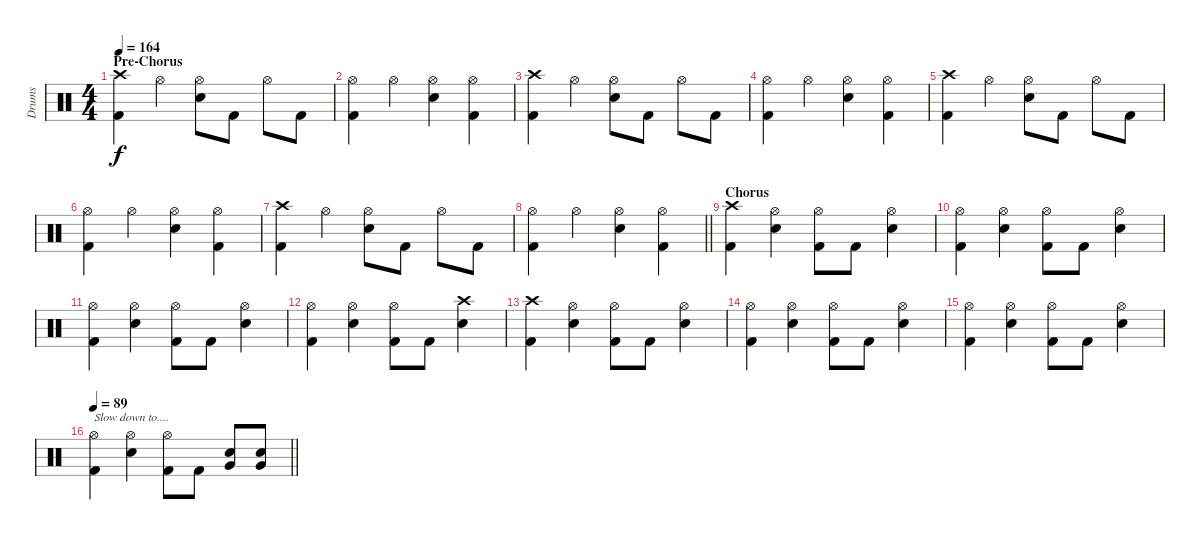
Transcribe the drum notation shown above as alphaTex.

\track ("Drums" "Drums") {instrument percussion}
\staff {score}
\articulation defaults
\ts (4 4)
\section ("" "Pre-Chorus")
\tempo 164
\clef neutral
\ks c
("Crash high (hit)" "Kick (hit) 2").4{dy f} "Hi-Hat (open)".4 ("Hi-Hat (open)" "Snare (hit) 2").8 "Kick (hit) 2".8 "Hi-Hat (open)".8 "Kick (hit) 2".8 |
("Hi-Hat (open)" "Kick (hit) 2").4 "Hi-Hat (open)".4 ("Hi-Hat (open)" "Snare (hit) 2").4 ("Hi-Hat (open)" "Kick (hit) 2").4 |
("Crash high (hit)" "Kick (hit) 2").4 "Hi-Hat (open)".4 ("Hi-Hat (open)" "Snare (hit) 2").8 "Kick (hit) 2".8 "Hi-Hat (open)".8 "Kick (hit) 2".8 |
("Hi-Hat (open)" "Kick (hit) 2").4 "Hi-Hat (open)".4 ("Hi-Hat (open)" "Snare (hit) 2").4 ("Hi-Hat (open)" "Kick (hit) 2").4 |
("Crash high (hit)" "Kick (hit) 2").4 "Hi-Hat (open)".4 ("Hi-Hat (open)" "Snare (hit) 2").8 "Kick (hit) 2".8 "Hi-Hat (open)".8 "Kick (hit) 2".8 |
("Hi-Hat (open)" "Kick (hit) 2").4 "Hi-Hat (open)".4 ("Hi-Hat (open)" "Snare (hit) 2").4 ("Hi-Hat (open)" "Kick (hit) 2").4 |
("Crash high (hit)" "Kick (hit) 2").4 "Hi-Hat (open)".4 ("Hi-Hat (open)" "Snare (hit) 2").8 "Kick (hit) 2".8 "Hi-Hat (open)".8 "Kick (hit) 2".8 |
\barLineRight lightlight
("Hi-Hat (open)" "Kick (hit) 2").4 "Hi-Hat (open)".4 ("Hi-Hat (open)" "Snare (hit) 2").4 ("Hi-Hat (open)" "Kick (hit) 2").4 |
\section ("" "Chorus")
("Crash high (hit)" "Kick (hit) 2").4 ("Hi-Hat (open)" "Snare (hit) 2").4 ("Hi-Hat (open)" "Kick (hit) 2").8 "Kick (hit) 2".8 ("Hi-Hat (open)" "Snare (hit) 2").4 |
("Hi-Hat (open)" "Kick (hit) 2").4 ("Hi-Hat (open)" "Snare (hit) 2").4 ("Hi-Hat (open)" "Kick (hit) 2").8 "Kick (hit) 2".8 ("Hi-Hat (open)" "Snare (hit) 2").4 |
("Hi-Hat (open)" "Kick (hit) 2").4 ("Hi-Hat (open)" "Snare (hit) 2").4 ("Hi-Hat (open)" "Kick (hit) 2").8 "Kick (hit) 2".8 ("Hi-Hat (open)" "Snare (hit) 2").4 |
("Hi-Hat (open)" "Kick (hit) 2").4 ("Hi-Hat (open)" "Snare (hit) 2").4 ("Hi-Hat (open)" "Kick (hit) 2").8 "Kick (hit) 2".8 ("Crash high (hit)" "Snare (hit) 2").4 |
("Crash high (hit)" "Kick (hit) 2").4 ("Hi-Hat (open)" "Snare (hit) 2").4 ("Hi-Hat (open)" "Kick (hit) 2").8 "Kick (hit) 2".8 ("Hi-Hat (open)" "Snare (hit) 2").4 |
("Hi-Hat (open)" "Kick (hit) 2").4 ("Hi-Hat (open)" "Snare (hit) 2").4 ("Hi-Hat (open)" "Kick (hit) 2").8 "Kick (hit) 2".8 ("Hi-Hat (open)" "Snare (hit) 2").4 |
("Hi-Hat (open)" "Kick (hit) 2").4 ("Hi-Hat (open)" "Snare (hit) 2").4 ("Hi-Hat (open)" "Kick (hit) 2").8 "Kick (hit) 2".8 ("Hi-Hat (open)" "Snare (hit) 2").4 |
\tempo 89
\barLineRight lightlight
("Hi-Hat (open)" "Kick (hit) 2").4{txt "Slow down to...."} ("Hi-Hat (open)" "Snare (hit) 2").4 ("Hi-Hat (open)" "Kick (hit) 2").8 "Kick (hit) 2".8 ("Very Low Tom (hit)" "Snare (hit) 2").8 ("Very Low Tom (hit)" "Snare (hit) 2").8
